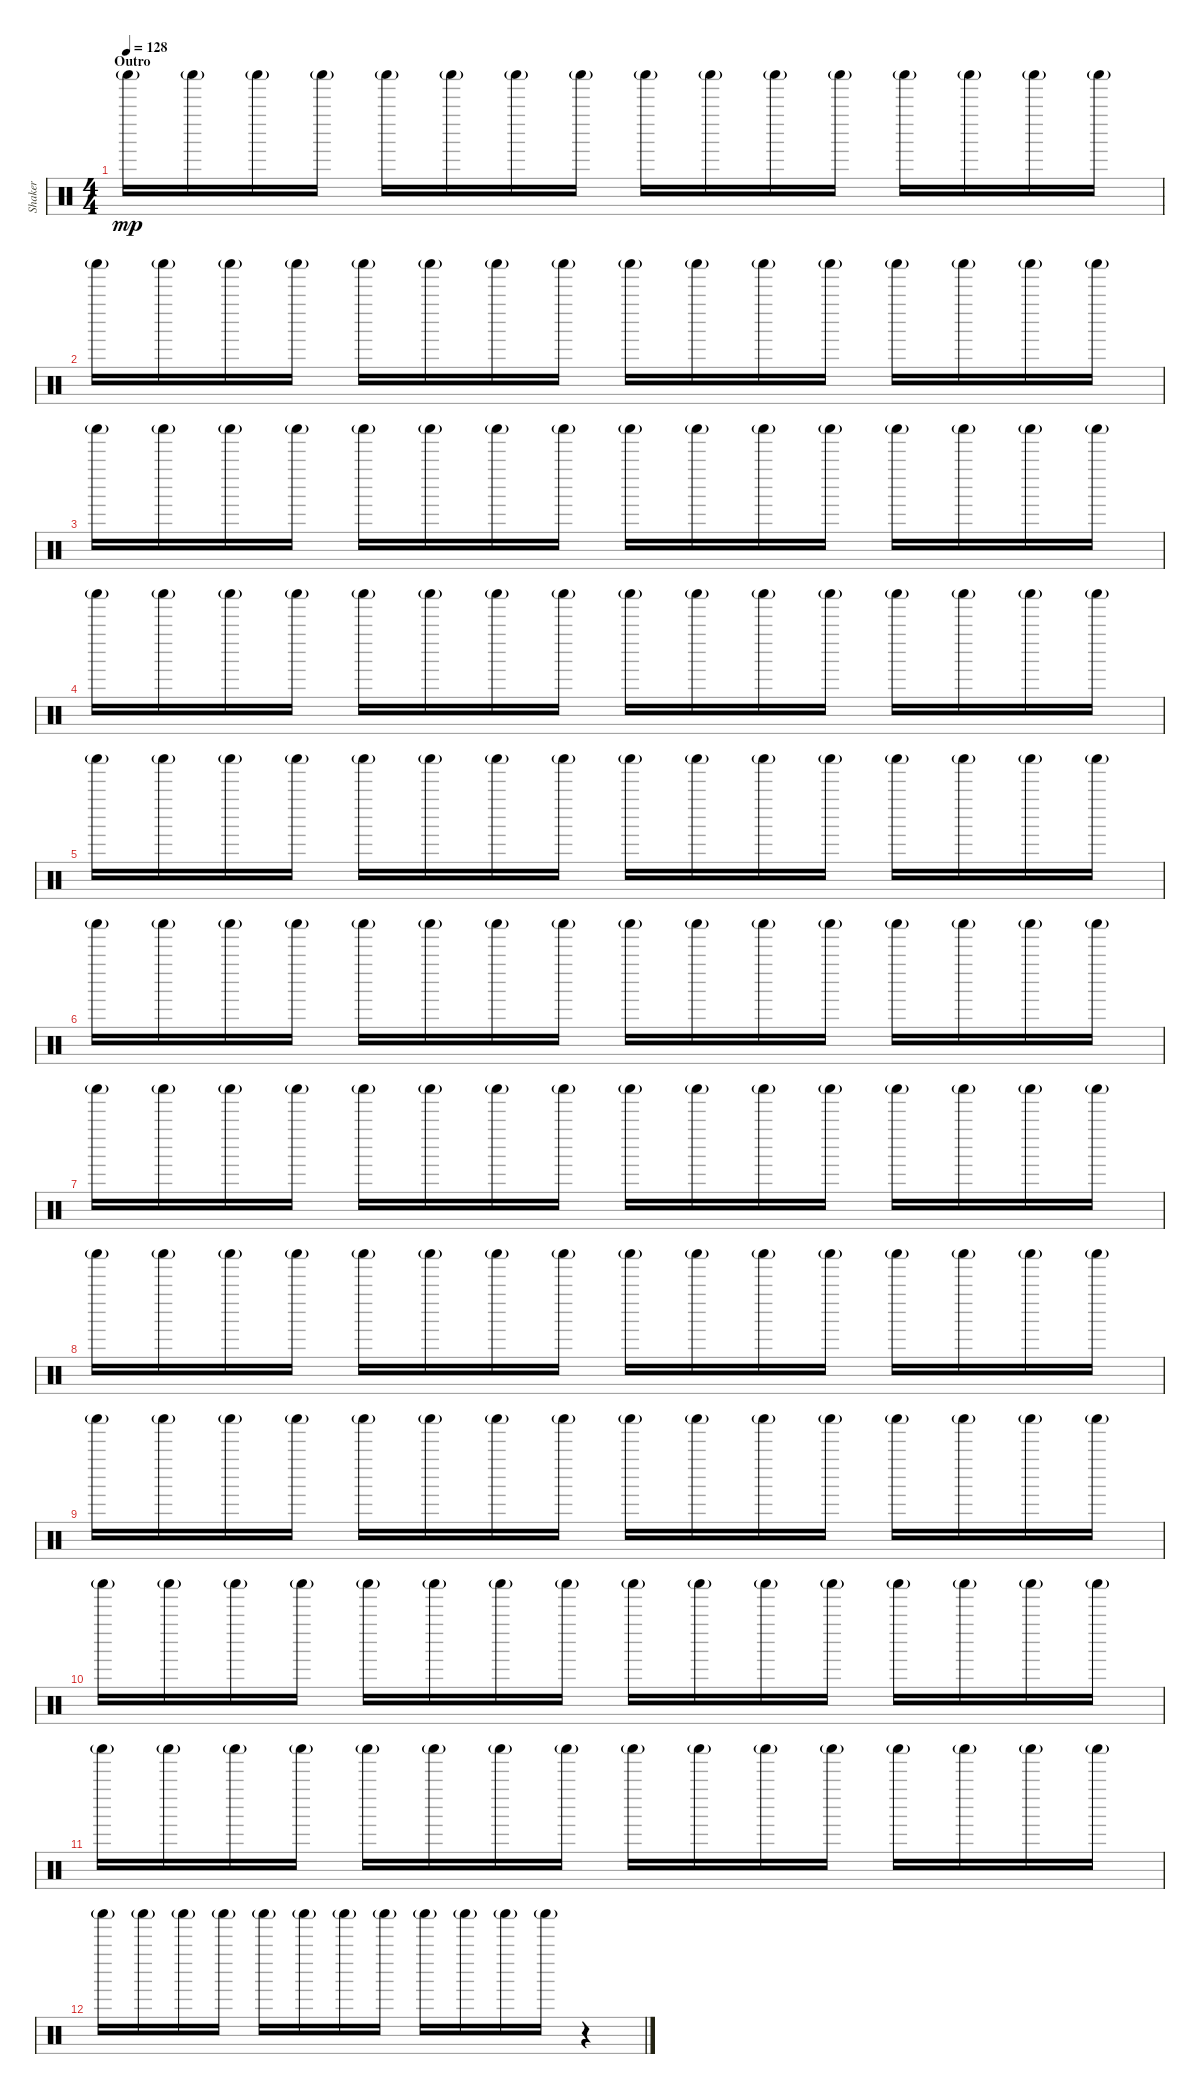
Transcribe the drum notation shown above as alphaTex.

\track ("Shaker" "Shaker") {instrument percussion}
\staff {score}
\articulation defaults
\ts (4 4)
\section ("" "Outro")
\tempo 128
\clef neutral
\ks c "Shaker (hit)"{g}.16{dy mp} "Shaker (hit)"{g}.16 "Shaker (hit)"{g}.16 "Shaker (hit)"{g}.16 "Shaker (hit)"{g}.16 "Shaker (hit)"{g}.16 "Shaker (hit)"{g}.16 "Shaker (hit)"{g}.16 "Shaker (hit)"{g}.16 "Shaker (hit)"{g}.16 "Shaker (hit)"{g}.16 "Shaker (hit)"{g}.16 "Shaker (hit)"{g}.16 "Shaker (hit)"{g}.16 "Shaker (hit)"{g}.16 "Shaker (hit)"{g}.16
|
"Shaker (hit)"{g}.16 "Shaker (hit)"{g}.16 "Shaker (hit)"{g}.16 "Shaker (hit)"{g}.16 "Shaker (hit)"{g}.16 "Shaker (hit)"{g}.16 "Shaker (hit)"{g}.16 "Shaker (hit)"{g}.16 "Shaker (hit)"{g}.16 "Shaker (hit)"{g}.16 "Shaker (hit)"{g}.16 "Shaker (hit)"{g}.16 "Shaker (hit)"{g}.16 "Shaker (hit)"{g}.16 "Shaker (hit)"{g}.16 "Shaker (hit)"{g}.16 |
"Shaker (hit)"{g}.16 "Shaker (hit)"{g}.16 "Shaker (hit)"{g}.16 "Shaker (hit)"{g}.16 "Shaker (hit)"{g}.16 "Shaker (hit)"{g}.16 "Shaker (hit)"{g}.16 "Shaker (hit)"{g}.16 "Shaker (hit)"{g}.16 "Shaker (hit)"{g}.16 "Shaker (hit)"{g}.16 "Shaker (hit)"{g}.16 "Shaker (hit)"{g}.16 "Shaker (hit)"{g}.16 "Shaker (hit)"{g}.16 "Shaker (hit)"{g}.16 |
"Shaker (hit)"{g}.16 "Shaker (hit)"{g}.16 "Shaker (hit)"{g}.16 "Shaker (hit)"{g}.16 "Shaker (hit)"{g}.16 "Shaker (hit)"{g}.16 "Shaker (hit)"{g}.16 "Shaker (hit)"{g}.16 "Shaker (hit)"{g}.16 "Shaker (hit)"{g}.16 "Shaker (hit)"{g}.16 "Shaker (hit)"{g}.16 "Shaker (hit)"{g}.16 "Shaker (hit)"{g}.16 "Shaker (hit)"{g}.16 "Shaker (hit)"{g}.16 |
"Shaker (hit)"{g}.16 "Shaker (hit)"{g}.16 "Shaker (hit)"{g}.16 "Shaker (hit)"{g}.16 "Shaker (hit)"{g}.16 "Shaker (hit)"{g}.16 "Shaker (hit)"{g}.16 "Shaker (hit)"{g}.16 "Shaker (hit)"{g}.16 "Shaker (hit)"{g}.16 "Shaker (hit)"{g}.16 "Shaker (hit)"{g}.16 "Shaker (hit)"{g}.16 "Shaker (hit)"{g}.16 "Shaker (hit)"{g}.16 "Shaker (hit)"{g}.16 |
"Shaker (hit)"{g}.16 "Shaker (hit)"{g}.16 "Shaker (hit)"{g}.16 "Shaker (hit)"{g}.16 "Shaker (hit)"{g}.16 "Shaker (hit)"{g}.16 "Shaker (hit)"{g}.16 "Shaker (hit)"{g}.16 "Shaker (hit)"{g}.16 "Shaker (hit)"{g}.16 "Shaker (hit)"{g}.16 "Shaker (hit)"{g}.16 "Shaker (hit)"{g}.16 "Shaker (hit)"{g}.16 "Shaker (hit)"{g}.16 "Shaker (hit)"{g}.16 |
"Shaker (hit)"{g}.16 "Shaker (hit)"{g}.16 "Shaker (hit)"{g}.16 "Shaker (hit)"{g}.16 "Shaker (hit)"{g}.16 "Shaker (hit)"{g}.16 "Shaker (hit)"{g}.16 "Shaker (hit)"{g}.16 "Shaker (hit)"{g}.16 "Shaker (hit)"{g}.16 "Shaker (hit)"{g}.16 "Shaker (hit)"{g}.16 "Shaker (hit)"{g}.16 "Shaker (hit)"{g}.16 "Shaker (hit)"{g}.16 "Shaker (hit)"{g}.16 |
"Shaker (hit)"{g}.16 "Shaker (hit)"{g}.16 "Shaker (hit)"{g}.16 "Shaker (hit)"{g}.16 "Shaker (hit)"{g}.16 "Shaker (hit)"{g}.16 "Shaker (hit)"{g}.16 "Shaker (hit)"{g}.16 "Shaker (hit)"{g}.16 "Shaker (hit)"{g}.16 "Shaker (hit)"{g}.16 "Shaker (hit)"{g}.16 "Shaker (hit)"{g}.16 "Shaker (hit)"{g}.16 "Shaker (hit)"{g}.16 "Shaker (hit)"{g}.16 |
"Shaker (hit)"{g}.16 "Shaker (hit)"{g}.16 "Shaker (hit)"{g}.16 "Shaker (hit)"{g}.16 "Shaker (hit)"{g}.16 "Shaker (hit)"{g}.16 "Shaker (hit)"{g}.16 "Shaker (hit)"{g}.16 "Shaker (hit)"{g}.16 "Shaker (hit)"{g}.16 "Shaker (hit)"{g}.16 "Shaker (hit)"{g}.16 "Shaker (hit)"{g}.16 "Shaker (hit)"{g}.16 "Shaker (hit)"{g}.16 "Shaker (hit)"{g}.16 |
"Shaker (hit)"{g}.16 "Shaker (hit)"{g}.16 "Shaker (hit)"{g}.16 "Shaker (hit)"{g}.16 "Shaker (hit)"{g}.16 "Shaker (hit)"{g}.16 "Shaker (hit)"{g}.16 "Shaker (hit)"{g}.16 "Shaker (hit)"{g}.16 "Shaker (hit)"{g}.16 "Shaker (hit)"{g}.16 "Shaker (hit)"{g}.16 "Shaker (hit)"{g}.16 "Shaker (hit)"{g}.16 "Shaker (hit)"{g}.16 "Shaker (hit)"{g}.16 |
"Shaker (hit)"{g}.16 "Shaker (hit)"{g}.16 "Shaker (hit)"{g}.16 "Shaker (hit)"{g}.16 "Shaker (hit)"{g}.16 "Shaker (hit)"{g}.16 "Shaker (hit)"{g}.16 "Shaker (hit)"{g}.16 "Shaker (hit)"{g}.16 "Shaker (hit)"{g}.16 "Shaker (hit)"{g}.16 "Shaker (hit)"{g}.16 "Shaker (hit)"{g}.16 "Shaker (hit)"{g}.16 "Shaker (hit)"{g}.16 "Shaker (hit)"{g}.16 |
"Shaker (hit)"{g}.16 "Shaker (hit)"{g}.16 "Shaker (hit)"{g}.16 "Shaker (hit)"{g}.16 "Shaker (hit)"{g}.16 "Shaker (hit)"{g}.16 "Shaker (hit)"{g}.16 "Shaker (hit)"{g}.16 "Shaker (hit)"{g}.16 "Shaker (hit)"{g}.16 "Shaker (hit)"{g}.16 "Shaker (hit)"{g}.16 r.4
